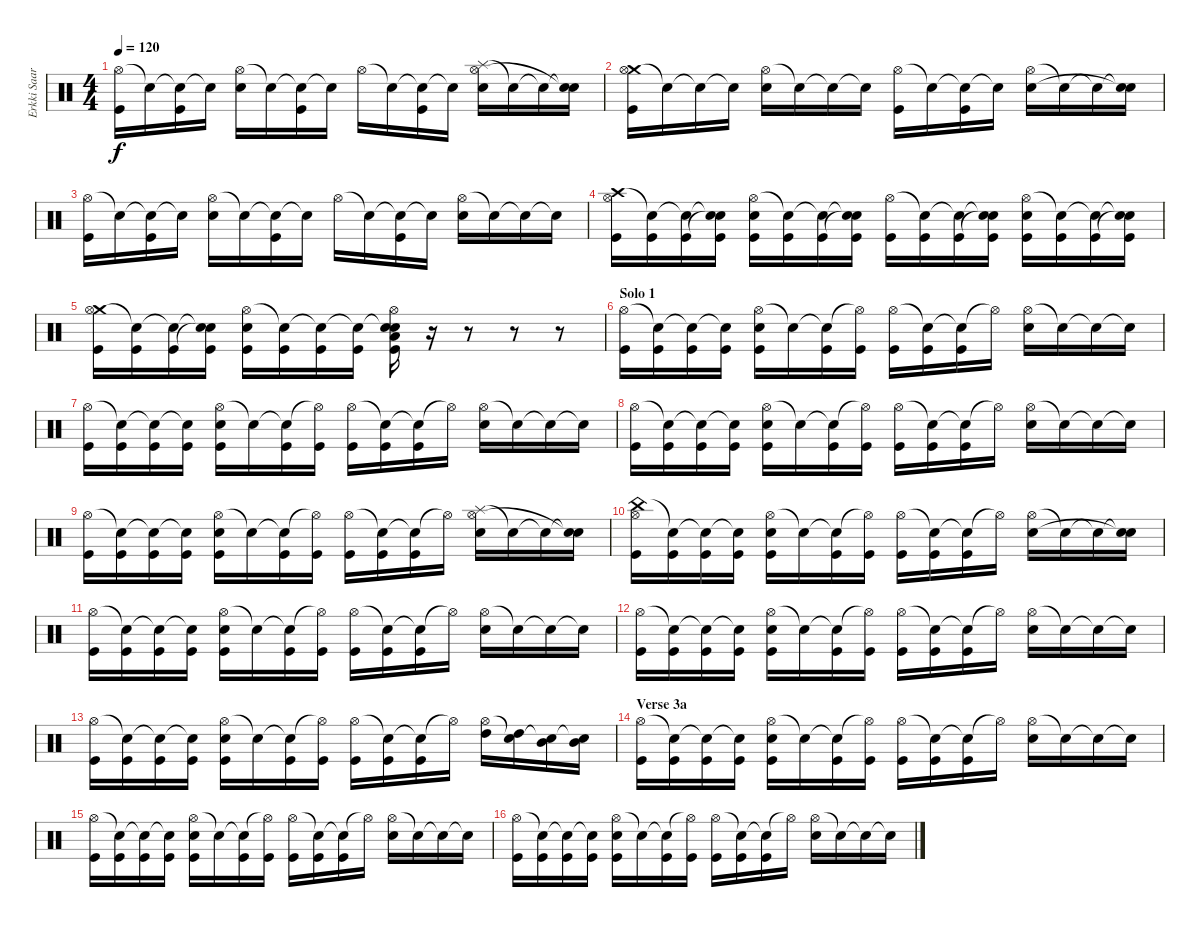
\track ("Erkki Saarinen" "Erkki Saar") {instrument percussion}
\staff {score}
\articulation defaults
\ts (4 4)
\tempo 120
\clef neutral
\ks c
("Hi-Hat (open)" "Kick (hit)").16{dy f} "Snare (hit)"{t}.16 ("Snare (hit)"{t} "Kick (hit)").16 "Snare (hit)"{t}.16 ("Hi-Hat (open)" "Snare (hit) 2").16 "Snare (hit)"{t}.16 ("Snare (hit)"{t} "Kick (hit)").16 "Snare (hit)"{t}.16 "Hi-Hat (open)".16 "Snare (hit)"{t}.16 ("Snare (hit)"{t} "Kick (hit)").16 "Snare (hit)"{t}.16 ("Splash (hit)" "Hi-Hat (open)" "Snare (hit) 2").16 "Snare (hit)"{t}.16 "Snare (hit)"{t}.16 ("Snare (hit)"{t} "Snare (hit)"{t}).16 |
("Crash medium (hit)" "Hi-Hat (open)" "Kick (hit)").16 "Snare (hit)"{t}.16 "Snare (hit)"{t}.16 "Snare (hit)"{t}.16 ("Hi-Hat (open)" "Snare (hit) 2").16 "Snare (hit)"{t}.16 "Snare (hit)"{t}.16 "Snare (hit)"{t}.16 ("Hi-Hat (open)" "Kick (hit)").16 "Snare (hit)"{t}.16 ("Snare (hit)"{t} "Kick (hit)").16 "Snare (hit)"{t}.16 ("Hi-Hat (open)" "Snare (hit) 2").16 "Snare (hit)"{t}.16 "Snare (hit)"{t}.16 ("Snare (hit)"{t} "Snare (hit)"{t}).16 |
("Hi-Hat (open)" "Kick (hit)").16 "Snare (hit)"{t}.16 ("Snare (hit)"{t} "Kick (hit)").16 "Snare (hit)"{t}.16 ("Hi-Hat (open)" "Snare (hit) 2").16 "Snare (hit)"{t}.16 ("Snare (hit)"{t} "Kick (hit)").16 "Snare (hit)"{t}.16 "Hi-Hat (open)".16 "Snare (hit)"{t}.16 ("Snare (hit)"{t} "Kick (hit)").16 "Snare (hit)"{t}.16 ("Hi-Hat (open)" "Snare (hit) 2").16 "Snare (hit)"{t}.16 "Snare (hit)"{t}.16 "Snare (hit)"{t}.16 |
("Crash high (hit)" "Hi-Hat (open)" "Kick (hit)").16 ("Snare (hit)"{t} "Kick (hit)").16 ("Snare (hit)"{t} "Kick (hit)").16 ("Snare (hit)"{t} "Snare (hit)"{t} "Kick (hit)").16 ("Hi-Hat (open)" "Snare (hit) 2" "Kick (hit)").16 ("Snare (hit)"{t} "Kick (hit)").16 ("Snare (hit)"{t} "Kick (hit)").16 ("Snare (hit)"{t} "Snare (hit)"{t} "Kick (hit)").16 ("Hi-Hat (open)" "Kick (hit)").16 ("Snare (hit)"{t} "Kick (hit)").16 ("Snare (hit)"{t} "Kick (hit)").16 ("Snare (hit)"{t} "Snare (hit)"{t} "Kick (hit)").16 ("Hi-Hat (open)" "Snare (hit) 2" "Kick (hit)").16 ("Snare (hit)"{t} "Kick (hit)").16 ("Snare (hit)"{t} "Kick (hit)").16 ("Snare (hit)"{t} "Snare (hit)"{t} "Kick (hit)").16 |
("Crash medium (hit)" "Hi-Hat (open)" "Kick (hit)").16 ("Snare (hit)"{t} "Kick (hit)").16 ("Snare (hit)"{t} "Kick (hit)").16 ("Snare (hit)"{t} "Snare (hit)"{t} "Kick (hit)").16 ("Hi-Hat (open)" "Snare (hit) 2" "Kick (hit)").16 ("Snare (hit)"{t} "Kick (hit)").16 ("Snare (hit)"{t} "Kick (hit)").16 ("Snare (hit)"{t} "Kick (hit)").16 ("Snare (hit)"{t} "Hi-Hat (open)" "Low Tom (hit)" "Snare (hit) 2" "Kick (hit)").16 r.16 r.8 r.8 r.8 |
\section ("" "Solo 1")
("Hi-Hat (open)" "Kick (hit)").16 ("Snare (hit)"{t} "Kick (hit)").16 ("Snare (hit)"{t} "Kick (hit)").16 ("Snare (hit)"{t} "Kick (hit)").16 ("Hi-Hat (open)" "Snare (hit) 2" "Kick (hit)").16 "Snare (hit)"{t}.16 ("Snare (hit)"{t} "Kick (hit)").16 ("Hi-Hat (open)"{t} "Kick (hit)").16 ("Hi-Hat (open)" "Kick (hit)").16 ("Snare (hit)"{t} "Kick (hit)").16 ("Snare (hit)"{t} "Kick (hit)").16 "Hi-Hat (open)"{t}.16 ("Hi-Hat (open)" "Snare (hit) 2").16 "Snare (hit)"{t}.16 "Snare (hit)"{t}.16 "Snare (hit)"{t}.16 |
("Hi-Hat (open)" "Kick (hit)").16 ("Snare (hit)"{t} "Kick (hit)").16 ("Snare (hit)"{t} "Kick (hit)").16 ("Snare (hit)"{t} "Kick (hit)").16 ("Hi-Hat (open)" "Snare (hit) 2" "Kick (hit)").16 "Snare (hit)"{t}.16 ("Snare (hit)"{t} "Kick (hit)").16 ("Hi-Hat (open)"{t} "Kick (hit)").16 ("Hi-Hat (open)" "Kick (hit)").16 ("Snare (hit)"{t} "Kick (hit)").16 ("Snare (hit)"{t} "Kick (hit)").16 "Hi-Hat (open)"{t}.16 ("Hi-Hat (open)" "Snare (hit) 2").16 "Snare (hit)"{t}.16 "Snare (hit)"{t}.16 "Snare (hit)"{t}.16 |
("Hi-Hat (open)" "Kick (hit)").16 ("Snare (hit)"{t} "Kick (hit)").16 ("Snare (hit)"{t} "Kick (hit)").16 ("Snare (hit)"{t} "Kick (hit)").16 ("Hi-Hat (open)" "Snare (hit) 2" "Kick (hit)").16 "Snare (hit)"{t}.16 ("Snare (hit)"{t} "Kick (hit)").16 ("Hi-Hat (open)"{t} "Kick (hit)").16 ("Hi-Hat (open)" "Kick (hit)").16 ("Snare (hit)"{t} "Kick (hit)").16 ("Snare (hit)"{t} "Kick (hit)").16 "Hi-Hat (open)"{t}.16 ("Hi-Hat (open)" "Snare (hit) 2").16 "Snare (hit)"{t}.16 "Snare (hit)"{t}.16 "Snare (hit)"{t}.16 |
("Hi-Hat (open)" "Kick (hit)").16 ("Snare (hit)"{t} "Kick (hit)").16 ("Snare (hit)"{t} "Kick (hit)").16 ("Snare (hit)"{t} "Kick (hit)").16 ("Hi-Hat (open)" "Snare (hit) 2" "Kick (hit)").16 "Snare (hit)"{t}.16 ("Snare (hit)"{t} "Kick (hit)").16 ("Hi-Hat (open)"{t} "Kick (hit)").16 ("Hi-Hat (open)" "Kick (hit)").16 ("Snare (hit)"{t} "Kick (hit)").16 ("Snare (hit)"{t} "Kick (hit)").16 "Hi-Hat (open)"{t}.16 ("Splash (hit)" "Hi-Hat (open)" "Snare (hit) 2").16 "Snare (hit)"{t}.16 "Snare (hit)"{t}.16 ("Snare (hit)"{t} "Snare (hit)"{t}).16 |
("China (hit)" "Hi-Hat (open)" "Kick (hit)").16 ("Snare (hit)"{t} "Kick (hit)").16 ("Snare (hit)"{t} "Kick (hit)").16 ("Snare (hit)"{t} "Kick (hit)").16 ("Hi-Hat (open)" "Snare (hit) 2" "Kick (hit)").16 "Snare (hit)"{t}.16 ("Snare (hit)"{t} "Kick (hit)").16 ("Hi-Hat (open)"{t} "Kick (hit)").16 ("Hi-Hat (open)" "Kick (hit)").16 ("Snare (hit)"{t} "Kick (hit)").16 ("Snare (hit)"{t} "Kick (hit)").16 "Hi-Hat (open)"{t}.16 ("Hi-Hat (open)" "Snare (hit) 2").16 "Snare (hit)"{t}.16 "Snare (hit)"{t}.16 ("Snare (hit)"{t} "Snare (hit)"{t}).16 |
("Hi-Hat (open)" "Kick (hit)").16 ("Snare (hit)"{t} "Kick (hit)").16 ("Snare (hit)"{t} "Kick (hit)").16 ("Snare (hit)"{t} "Kick (hit)").16 ("Hi-Hat (open)" "Snare (hit) 2" "Kick (hit)").16 "Snare (hit)"{t}.16 ("Snare (hit)"{t} "Kick (hit)").16 ("Hi-Hat (open)"{t} "Kick (hit)").16 ("Hi-Hat (open)" "Kick (hit)").16 ("Snare (hit)"{t} "Kick (hit)").16 ("Snare (hit)"{t} "Kick (hit)").16 "Hi-Hat (open)"{t}.16 ("Hi-Hat (open)" "Snare (hit) 2").16 "Snare (hit)"{t}.16 "Snare (hit)"{t}.16 "Snare (hit)"{t}.16 |
("Hi-Hat (open)" "Kick (hit)").16 ("Snare (hit)"{t} "Kick (hit)").16 ("Snare (hit)"{t} "Kick (hit)").16 ("Snare (hit)"{t} "Kick (hit)").16 ("Hi-Hat (open)" "Snare (hit) 2" "Kick (hit)").16 "Snare (hit)"{t}.16 ("Snare (hit)"{t} "Kick (hit)").16 ("Hi-Hat (open)"{t} "Kick (hit)").16 ("Hi-Hat (open)" "Kick (hit)").16 ("Snare (hit)"{t} "Kick (hit)").16 ("Snare (hit)"{t} "Kick (hit)").16 "Hi-Hat (open)"{t}.16 ("Hi-Hat (open)" "Snare (hit) 2").16 "Snare (hit)"{t}.16 "Snare (hit)"{t}.16 "Snare (hit)"{t}.16 |
("Hi-Hat (open)" "Kick (hit)").16 ("Snare (hit)"{t} "Kick (hit)").16 ("Snare (hit)"{t} "Kick (hit)").16 ("Snare (hit)"{t} "Kick (hit)").16 ("Hi-Hat (open)" "Snare (hit) 2" "Kick (hit)").16 "Snare (hit)"{t}.16 ("Snare (hit)"{t} "Kick (hit)").16 ("Hi-Hat (open)"{t} "Kick (hit)").16 ("Hi-Hat (open)" "Kick (hit)").16 ("Snare (hit)"{t} "Kick (hit)").16 ("Snare (hit)"{t} "Kick (hit)").16 "Hi-Hat (open)"{t}.16 ("Hi-Hat (open)" "High Tom (hit)").16 ("Snare (hit)"{t} "High Tom (hit)").16 ("Snare (hit)"{t} "Mid Tom (hit)").16 ("Snare (hit)"{t} "Mid Tom (hit)").16 |
\section ("" "Verse 3a")
("Hi-Hat (open)" "Kick (hit)").16 ("Snare (hit)"{t} "Kick (hit)").16 ("Snare (hit)"{t} "Kick (hit)").16 ("Snare (hit)"{t} "Kick (hit)").16 ("Hi-Hat (open)" "Snare (hit) 2" "Kick (hit)").16 "Snare (hit)"{t}.16 ("Snare (hit)"{t} "Kick (hit)").16 ("Hi-Hat (open)"{t} "Kick (hit)").16 ("Hi-Hat (open)" "Kick (hit)").16 ("Snare (hit)"{t} "Kick (hit)").16 ("Snare (hit)"{t} "Kick (hit)").16 "Hi-Hat (open)"{t}.16 ("Hi-Hat (open)" "Snare (hit) 2").16 "Snare (hit)"{t}.16 "Snare (hit)"{t}.16 "Snare (hit)"{t}.16 |
("Hi-Hat (open)" "Kick (hit)").16 ("Snare (hit)"{t} "Kick (hit)").16 ("Snare (hit)"{t} "Kick (hit)").16 ("Snare (hit)"{t} "Kick (hit)").16 ("Hi-Hat (open)" "Snare (hit) 2" "Kick (hit)").16 "Snare (hit)"{t}.16 ("Snare (hit)"{t} "Kick (hit)").16 ("Hi-Hat (open)"{t} "Kick (hit)").16 ("Hi-Hat (open)" "Kick (hit)").16 ("Snare (hit)"{t} "Kick (hit)").16 ("Snare (hit)"{t} "Kick (hit)").16 "Hi-Hat (open)"{t}.16 ("Hi-Hat (open)" "Snare (hit) 2").16 "Snare (hit)"{t}.16 "Snare (hit)"{t}.16 "Snare (hit)"{t}.16 |
("Hi-Hat (open)" "Kick (hit)").16 ("Snare (hit)"{t} "Kick (hit)").16 ("Snare (hit)"{t} "Kick (hit)").16 ("Snare (hit)"{t} "Kick (hit)").16 ("Hi-Hat (open)" "Snare (hit) 2" "Kick (hit)").16 "Snare (hit)"{t}.16 ("Snare (hit)"{t} "Kick (hit)").16 ("Hi-Hat (open)"{t} "Kick (hit)").16 ("Hi-Hat (open)" "Kick (hit)").16 ("Snare (hit)"{t} "Kick (hit)").16 ("Snare (hit)"{t} "Kick (hit)").16 "Hi-Hat (open)"{t}.16 ("Hi-Hat (open)" "Snare (hit) 2").16 "Snare (hit)"{t}.16 "Snare (hit)"{t}.16 "Snare (hit)"{t}.16
